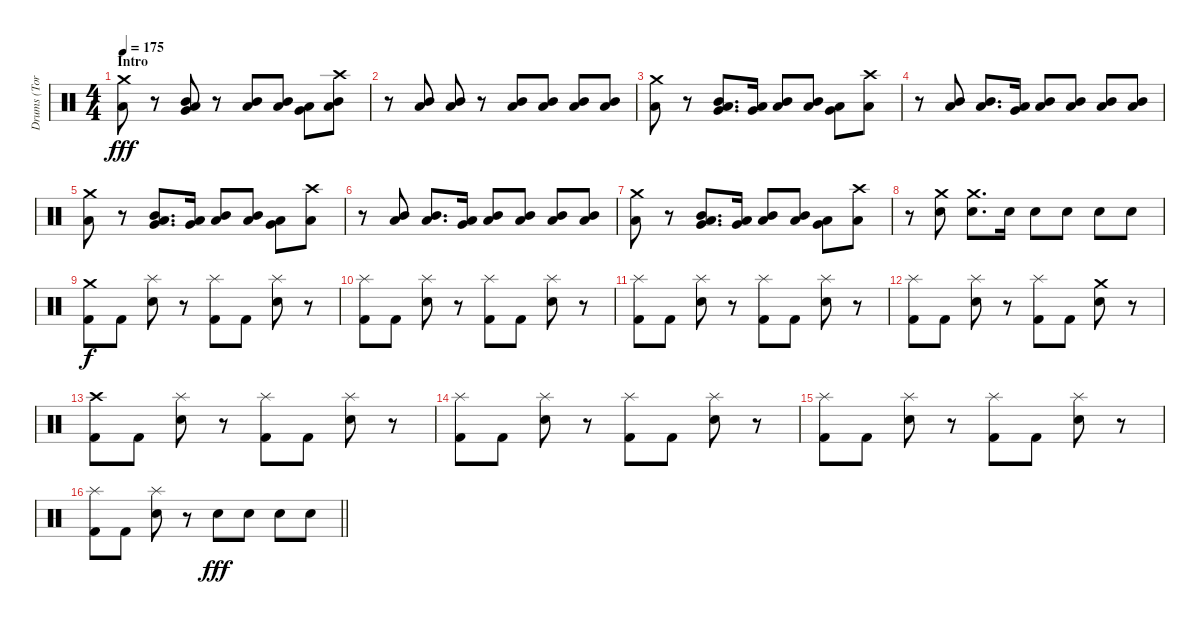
\track ("Drums (Tora)" "Drums (Tor") {instrument percussion}
\staff {score}
\articulation defaults
\ts (4 4)
\section ("" "Intro")
\tempo 175
\clef neutral
\ks c
("Crash medium (hit)" "Low Tom (hit)").8{dy fff} r.8 ("Mid Tom (hit)" "Low Tom (hit)" "Very Low Tom (hit)").8 r.8 ("Mid Tom (hit)" "Low Tom (hit)").8 ("Mid Tom (hit)" "Low Tom (hit)").8 ("Very Low Tom (hit)" "Low Floor Tom (hit)").8 ("Crash high (hit)" "Mid Tom (hit)" "Low Tom (hit)").8 |
r.8 ("Mid Tom (hit)" "Low Tom (hit)").8 ("Mid Tom (hit)" "Low Tom (hit)").8 r.8 ("Mid Tom (hit)" "Low Tom (hit)").8 ("Mid Tom (hit)" "Low Tom (hit)").8 ("Mid Tom (hit)" "Low Tom (hit)").8 ("Mid Tom (hit)" "Low Tom (hit)").8 |
("Crash medium (hit)" "Low Tom (hit)").8 r.8 ("Mid Tom (hit)" "Low Tom (hit)" "Very Low Tom (hit)").8{d} ("Very Low Tom (hit)" "Low Floor Tom (hit)").16 ("Mid Tom (hit)" "Low Tom (hit)").8 ("Mid Tom (hit)" "Low Tom (hit)").8 ("Very Low Tom (hit)" "Low Floor Tom (hit)").8 ("Crash high (hit)" "Low Tom (hit)").8 |
r.8 ("Mid Tom (hit)" "Low Tom (hit)").8 ("Mid Tom (hit)" "Low Tom (hit)").8{d} ("Very Low Tom (hit)" "Low Floor Tom (hit)").16 ("Mid Tom (hit)" "Low Tom (hit)").8 ("Mid Tom (hit)" "Low Tom (hit)").8 ("Mid Tom (hit)" "Low Tom (hit)").8 ("Mid Tom (hit)" "Low Tom (hit)").8 |
("Crash medium (hit)" "Low Tom (hit)").8 r.8 ("Mid Tom (hit)" "Low Tom (hit)" "Very Low Tom (hit)").8{d} ("Very Low Tom (hit)" "Low Floor Tom (hit)").16 ("Mid Tom (hit)" "Low Tom (hit)").8 ("Mid Tom (hit)" "Low Tom (hit)").8 ("Very Low Tom (hit)" "Low Floor Tom (hit)").8 ("Crash high (hit)" "Low Tom (hit)").8 |
r.8 ("Mid Tom (hit)" "Low Tom (hit)").8 ("Mid Tom (hit)" "Low Tom (hit)").8{d} ("Very Low Tom (hit)" "Low Floor Tom (hit)").16 ("Mid Tom (hit)" "Low Tom (hit)").8 ("Mid Tom (hit)" "Low Tom (hit)").8 ("Mid Tom (hit)" "Low Tom (hit)").8 ("Mid Tom (hit)" "Low Tom (hit)").8 |
("Crash medium (hit)" "Low Tom (hit)").8 r.8 ("Mid Tom (hit)" "Low Tom (hit)" "Very Low Tom (hit)").8{d} ("Very Low Tom (hit)" "Low Floor Tom (hit)").16 ("Mid Tom (hit)" "Low Tom (hit)").8 ("Mid Tom (hit)" "Low Tom (hit)").8 ("Very Low Tom (hit)" "Low Floor Tom (hit)").8 ("Crash high (hit)" "Low Tom (hit)").8 |
r.8 ("Crash medium (hit)" "Electric Snare (hit)").8 ("Crash medium (hit)" "Electric Snare (hit)").8{d} "Electric Snare (hit)".16 "Electric Snare (hit)".8 "Electric Snare (hit)".8 "Electric Snare (hit)".8 "Electric Snare (hit)".8 |
("Crash medium (hit)" "Kick (hit) 2").8{dy f} "Kick (hit) 2".8 ("Splash (hit)" "Electric Snare (hit)").8 r.8 ("Splash (hit)" "Kick (hit) 2").8 "Kick (hit) 2".8 ("Splash (hit)" "Electric Snare (hit)").8 r.8 |
("Splash (hit)" "Kick (hit) 2").8 "Kick (hit) 2".8 ("Splash (hit)" "Electric Snare (hit)").8 r.8 ("Splash (hit)" "Kick (hit) 2").8 "Kick (hit) 2".8 ("Splash (hit)" "Electric Snare (hit)").8 r.8 |
("Splash (hit)" "Kick (hit) 2").8 "Kick (hit) 2".8 ("Splash (hit)" "Electric Snare (hit)").8 r.8 ("Splash (hit)" "Kick (hit) 2").8 "Kick (hit) 2".8 ("Splash (hit)" "Electric Snare (hit)").8 r.8 |
("Splash (hit)" "Kick (hit) 2").8 "Kick (hit) 2".8 ("Splash (hit)" "Electric Snare (hit)").8 r.8 ("Splash (hit)" "Kick (hit) 2").8 "Kick (hit) 2".8 ("Crash medium (hit)" "Electric Snare (hit)").8 r.8 |
("Crash high (hit)" "Kick (hit) 2").8 "Kick (hit) 2".8 ("Splash (hit)" "Electric Snare (hit)").8 r.8 ("Splash (hit)" "Kick (hit) 2").8 "Kick (hit) 2".8 ("Splash (hit)" "Electric Snare (hit)").8 r.8 |
("Splash (hit)" "Kick (hit) 2").8 "Kick (hit) 2".8 ("Splash (hit)" "Electric Snare (hit)").8 r.8 ("Splash (hit)" "Kick (hit) 2").8 "Kick (hit) 2".8 ("Splash (hit)" "Electric Snare (hit)").8 r.8 |
("Splash (hit)" "Kick (hit) 2").8 "Kick (hit) 2".8 ("Splash (hit)" "Electric Snare (hit)").8 r.8 ("Splash (hit)" "Kick (hit) 2").8 "Kick (hit) 2".8 ("Splash (hit)" "Electric Snare (hit)").8 r.8 |
\barLineRight lightlight
("Splash (hit)" "Kick (hit) 2").8 "Kick (hit) 2".8 ("Splash (hit)" "Electric Snare (hit)").8 r.8 "Electric Snare (hit)".8{dy fff} "Electric Snare (hit)".8 "Electric Snare (hit)".8 "Electric Snare (hit)".8
